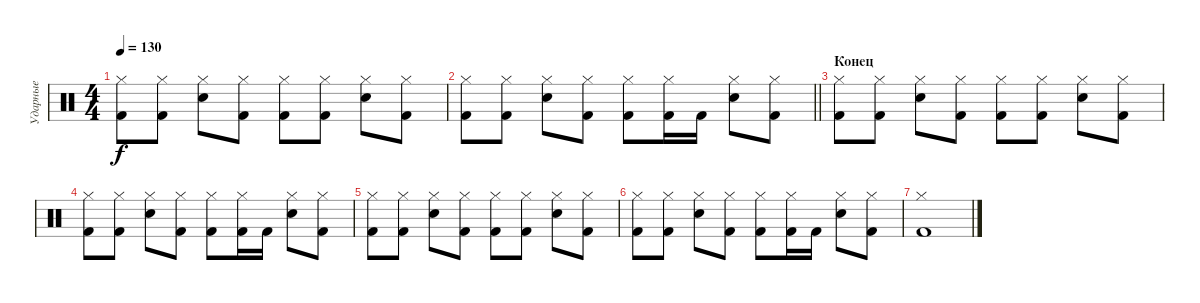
\track ("Ударные" "Ударные") {instrument percussion}
\staff {score}
\articulation defaults
\ts (4 4)
\tempo 130
\clef neutral
\ks c
("Hi-Hat (closed)" "Kick (hit) 2").8{dy f} ("Hi-Hat (closed)" "Kick (hit) 2").8 ("Hi-Hat (closed)" "Snare (hit) 2").8 ("Hi-Hat (closed)" "Kick (hit) 2").8 ("Hi-Hat (closed)" "Kick (hit) 2").8 ("Hi-Hat (closed)" "Kick (hit) 2").8 ("Hi-Hat (closed)" "Snare (hit) 2").8 ("Hi-Hat (closed)" "Kick (hit) 2").8 |
\barLineRight lightlight
("Hi-Hat (closed)" "Kick (hit) 2").8 ("Hi-Hat (closed)" "Kick (hit) 2").8 ("Hi-Hat (closed)" "Snare (hit) 2").8 ("Hi-Hat (closed)" "Kick (hit) 2").8 ("Hi-Hat (closed)" "Kick (hit) 2").8 ("Hi-Hat (closed)" "Kick (hit) 2").16 "Kick (hit) 2".16 ("Hi-Hat (closed)" "Snare (hit) 2").8 ("Hi-Hat (closed)" "Kick (hit) 2").8 |
\section ("" "Конец")
("Hi-Hat (closed)" "Kick (hit) 2").8 ("Hi-Hat (closed)" "Kick (hit) 2").8 ("Hi-Hat (closed)" "Snare (hit) 2").8 ("Hi-Hat (closed)" "Kick (hit) 2").8 ("Hi-Hat (closed)" "Kick (hit) 2").8 ("Hi-Hat (closed)" "Kick (hit) 2").8 ("Hi-Hat (closed)" "Snare (hit) 2").8 ("Hi-Hat (closed)" "Kick (hit) 2").8 |
("Hi-Hat (closed)" "Kick (hit) 2").8 ("Hi-Hat (closed)" "Kick (hit) 2").8 ("Hi-Hat (closed)" "Snare (hit) 2").8 ("Hi-Hat (closed)" "Kick (hit) 2").8 ("Hi-Hat (closed)" "Kick (hit) 2").8 ("Hi-Hat (closed)" "Kick (hit) 2").16 "Kick (hit) 2".16 ("Hi-Hat (closed)" "Snare (hit) 2").8 ("Hi-Hat (closed)" "Kick (hit) 2").8 |
("Hi-Hat (closed)" "Kick (hit) 2").8 ("Hi-Hat (closed)" "Kick (hit) 2").8 ("Hi-Hat (closed)" "Snare (hit) 2").8 ("Hi-Hat (closed)" "Kick (hit) 2").8 ("Hi-Hat (closed)" "Kick (hit) 2").8 ("Hi-Hat (closed)" "Kick (hit) 2").8 ("Hi-Hat (closed)" "Snare (hit) 2").8 ("Hi-Hat (closed)" "Kick (hit) 2").8 |
("Hi-Hat (closed)" "Kick (hit) 2").8 ("Hi-Hat (closed)" "Kick (hit) 2").8 ("Hi-Hat (closed)" "Snare (hit) 2").8 ("Hi-Hat (closed)" "Kick (hit) 2").8 ("Hi-Hat (closed)" "Kick (hit) 2").8 ("Hi-Hat (closed)" "Kick (hit) 2").16 "Kick (hit) 2".16 ("Hi-Hat (closed)" "Snare (hit) 2").8 ("Hi-Hat (closed)" "Kick (hit) 2").8 |
("Hi-Hat (closed)" "Kick (hit) 2").1
